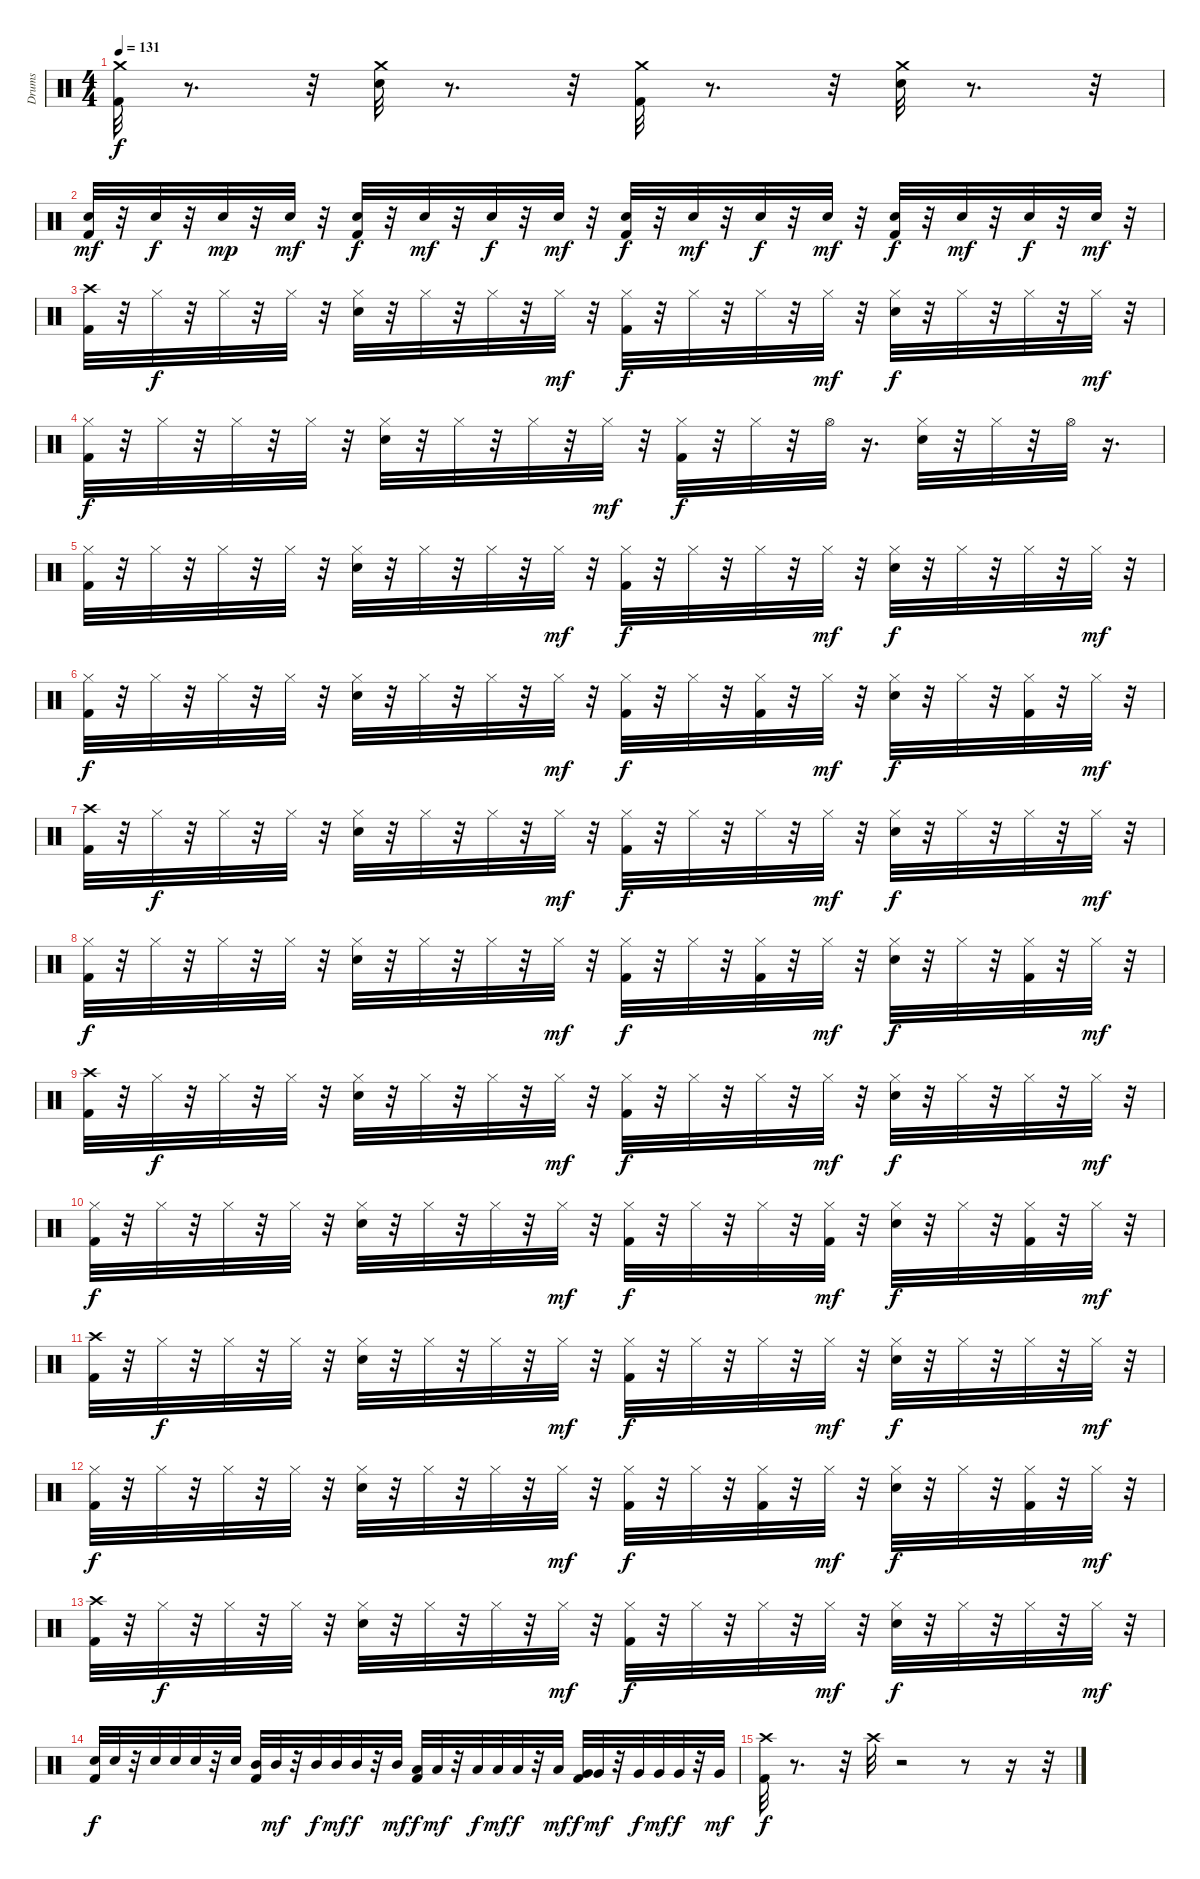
\track ("Drums" "Drums") {instrument percussion}
\staff {score}
\articulation defaults
\ts (4 4)
\tempo 131
\clef neutral
\ks c
("Crash medium (hit)" "Kick (hit) 2").32{dy f} r.8{d} r.32 ("Crash medium (hit)" "Snare (hit) 2").32 r.8{d} r.32 ("Crash medium (hit)" "Kick (hit) 2").32 r.8{d} r.32 ("Crash medium (hit)" "Snare (hit) 2").32 r.8{d} r.32 |
("Snare (hit) 2" "Kick (hit) 2").32{dy mf} r.32 "Snare (hit) 2".32{dy f} r.32 "Snare (hit) 2".32{dy mp} r.32 "Snare (hit) 2".32{dy mf} r.32 ("Snare (hit) 2" "Kick (hit) 2").32{dy f} r.32 "Snare (hit) 2".32{dy mf} r.32 "Snare (hit) 2".32{dy f} r.32 "Snare (hit) 2".32{dy mf} r.32 ("Kick (hit) 2" "Snare (hit) 2").32{dy f} r.32 "Snare (hit) 2".32{dy mf} r.32 "Snare (hit) 2".32{dy f} r.32 "Snare (hit) 2".32{dy mf} r.32 ("Kick (hit) 2" "Snare (hit) 2").32{dy f} r.32 "Snare (hit) 2".32{dy mf} r.32 "Snare (hit) 2".32{dy f} r.32 "Snare (hit) 2".32{dy mf} r.32 |
("Crash high (hit)" "Kick (hit) 2").32 r.32 "Hi-Hat (closed)".32{dy f} r.32 "Hi-Hat (closed)".32 r.32 "Hi-Hat (closed)".32 r.32 ("Hi-Hat (closed)" "Snare (hit) 2").32 r.32 "Hi-Hat (closed)".32 r.32 "Hi-Hat (closed)".32 r.32 "Hi-Hat (closed)".32{dy mf} r.32 ("Hi-Hat (closed)" "Kick (hit) 2").32{dy f} r.32 "Hi-Hat (closed)".32 r.32 "Hi-Hat (closed)".32 r.32 "Hi-Hat (closed)".32{dy mf} r.32 ("Hi-Hat (closed)" "Snare (hit) 2").32{dy f} r.32 "Hi-Hat (closed)".32 r.32 "Hi-Hat (closed)".32 r.32 "Hi-Hat (closed)".32{dy mf} r.32 |
("Kick (hit) 2" "Hi-Hat (closed)").32{dy f} r.32 "Hi-Hat (closed)".32 r.32 "Hi-Hat (closed)".32 r.32 "Hi-Hat (closed)".32 r.32 ("Snare (hit) 2" "Hi-Hat (closed)").32 r.32 "Hi-Hat (closed)".32 r.32 "Hi-Hat (closed)".32 r.32 "Hi-Hat (closed)".32{dy mf} r.32 ("Kick (hit) 2" "Hi-Hat (closed)").32{dy f} r.32 "Hi-Hat (closed)".32 r.32 "Hi-Hat (open)".32 r.16{d} ("Snare (hit) 2" "Hi-Hat (closed)").32 r.32 "Hi-Hat (closed)".32 r.32 "Hi-Hat (open)".32 r.16{d} |
("Kick (hit) 2" "Hi-Hat (closed)").32 r.32 "Hi-Hat (closed)".32 r.32 "Hi-Hat (closed)".32 r.32 "Hi-Hat (closed)".32 r.32 ("Hi-Hat (closed)" "Snare (hit) 2").32 r.32 "Hi-Hat (closed)".32 r.32 "Hi-Hat (closed)".32 r.32 "Hi-Hat (closed)".32{dy mf} r.32 ("Hi-Hat (closed)" "Kick (hit) 2").32{dy f} r.32 "Hi-Hat (closed)".32 r.32 "Hi-Hat (closed)".32 r.32 "Hi-Hat (closed)".32{dy mf} r.32 ("Hi-Hat (closed)" "Snare (hit) 2").32{dy f} r.32 "Hi-Hat (closed)".32 r.32 "Hi-Hat (closed)".32 r.32 "Hi-Hat (closed)".32{dy mf} r.32 |
("Kick (hit) 2" "Hi-Hat (closed)").32{dy f} r.32 "Hi-Hat (closed)".32 r.32 "Hi-Hat (closed)".32 r.32 "Hi-Hat (closed)".32 r.32 ("Hi-Hat (closed)" "Snare (hit) 2").32 r.32 "Hi-Hat (closed)".32 r.32 "Hi-Hat (closed)".32 r.32 "Hi-Hat (closed)".32{dy mf} r.32 ("Hi-Hat (closed)" "Kick (hit) 2").32{dy f} r.32 "Hi-Hat (closed)".32 r.32 ("Kick (hit) 2" "Hi-Hat (closed)").32 r.32 "Hi-Hat (closed)".32{dy mf} r.32 ("Hi-Hat (closed)" "Snare (hit) 2").32{dy f} r.32 "Hi-Hat (closed)".32 r.32 ("Kick (hit) 2" "Hi-Hat (closed)").32 r.32 "Hi-Hat (closed)".32{dy mf} r.32 |
("Crash high (hit)" "Kick (hit) 2").32 r.32 "Hi-Hat (closed)".32{dy f} r.32 "Hi-Hat (closed)".32 r.32 "Hi-Hat (closed)".32 r.32 ("Hi-Hat (closed)" "Snare (hit) 2").32 r.32 "Hi-Hat (closed)".32 r.32 "Hi-Hat (closed)".32 r.32 "Hi-Hat (closed)".32{dy mf} r.32 ("Hi-Hat (closed)" "Kick (hit) 2").32{dy f} r.32 "Hi-Hat (closed)".32 r.32 "Hi-Hat (closed)".32 r.32 "Hi-Hat (closed)".32{dy mf} r.32 ("Hi-Hat (closed)" "Snare (hit) 2").32{dy f} r.32 "Hi-Hat (closed)".32 r.32 "Hi-Hat (closed)".32 r.32 "Hi-Hat (closed)".32{dy mf} r.32 |
("Kick (hit) 2" "Hi-Hat (closed)").32{dy f} r.32 "Hi-Hat (closed)".32 r.32 "Hi-Hat (closed)".32 r.32 "Hi-Hat (closed)".32 r.32 ("Hi-Hat (closed)" "Snare (hit) 2").32 r.32 "Hi-Hat (closed)".32 r.32 "Hi-Hat (closed)".32 r.32 "Hi-Hat (closed)".32{dy mf} r.32 ("Hi-Hat (closed)" "Kick (hit) 2").32{dy f} r.32 "Hi-Hat (closed)".32 r.32 ("Kick (hit) 2" "Hi-Hat (closed)").32 r.32 "Hi-Hat (closed)".32{dy mf} r.32 ("Hi-Hat (closed)" "Snare (hit) 2").32{dy f} r.32 "Hi-Hat (closed)".32 r.32 ("Kick (hit) 2" "Hi-Hat (closed)").32 r.32 "Hi-Hat (closed)".32{dy mf} r.32 |
("Crash high (hit)" "Kick (hit) 2").32 r.32 "Hi-Hat (closed)".32{dy f} r.32 "Hi-Hat (closed)".32 r.32 "Hi-Hat (closed)".32 r.32 ("Hi-Hat (closed)" "Snare (hit) 2").32 r.32 "Hi-Hat (closed)".32 r.32 "Hi-Hat (closed)".32 r.32 "Hi-Hat (closed)".32{dy mf} r.32 ("Hi-Hat (closed)" "Kick (hit) 2").32{dy f} r.32 "Hi-Hat (closed)".32 r.32 "Hi-Hat (closed)".32 r.32 "Hi-Hat (closed)".32{dy mf} r.32 ("Hi-Hat (closed)" "Snare (hit) 2").32{dy f} r.32 "Hi-Hat (closed)".32 r.32 "Hi-Hat (closed)".32 r.32 "Hi-Hat (closed)".32{dy mf} r.32 |
("Kick (hit) 2" "Hi-Hat (closed)").32{dy f} r.32 "Hi-Hat (closed)".32 r.32 "Hi-Hat (closed)".32 r.32 "Hi-Hat (closed)".32 r.32 ("Hi-Hat (closed)" "Snare (hit) 2").32 r.32 "Hi-Hat (closed)".32 r.32 "Hi-Hat (closed)".32 r.32 "Hi-Hat (closed)".32{dy mf} r.32 ("Hi-Hat (closed)" "Kick (hit) 2").32{dy f} r.32 "Hi-Hat (closed)".32 r.32 "Hi-Hat (closed)".32 r.32 ("Hi-Hat (closed)" "Kick (hit) 2").32{dy mf} r.32 ("Hi-Hat (closed)" "Snare (hit) 2").32{dy f} r.32 "Hi-Hat (closed)".32 r.32 ("Kick (hit) 2" "Hi-Hat (closed)").32 r.32 "Hi-Hat (closed)".32{dy mf} r.32 |
("Crash high (hit)" "Kick (hit) 2").32 r.32 "Hi-Hat (closed)".32{dy f} r.32 "Hi-Hat (closed)".32 r.32 "Hi-Hat (closed)".32 r.32 ("Hi-Hat (closed)" "Snare (hit) 2").32 r.32 "Hi-Hat (closed)".32 r.32 "Hi-Hat (closed)".32 r.32 "Hi-Hat (closed)".32{dy mf} r.32 ("Hi-Hat (closed)" "Kick (hit) 2").32{dy f} r.32 "Hi-Hat (closed)".32 r.32 "Hi-Hat (closed)".32 r.32 "Hi-Hat (closed)".32{dy mf} r.32 ("Hi-Hat (closed)" "Snare (hit) 2").32{dy f} r.32 "Hi-Hat (closed)".32 r.32 "Hi-Hat (closed)".32 r.32 "Hi-Hat (closed)".32{dy mf} r.32 |
("Kick (hit) 2" "Hi-Hat (closed)").32{dy f} r.32 "Hi-Hat (closed)".32 r.32 "Hi-Hat (closed)".32 r.32 "Hi-Hat (closed)".32 r.32 ("Hi-Hat (closed)" "Snare (hit) 2").32 r.32 "Hi-Hat (closed)".32 r.32 "Hi-Hat (closed)".32 r.32 "Hi-Hat (closed)".32{dy mf} r.32 ("Hi-Hat (closed)" "Kick (hit) 2").32{dy f} r.32 "Hi-Hat (closed)".32 r.32 ("Kick (hit) 2" "Hi-Hat (closed)").32 r.32 "Hi-Hat (closed)".32{dy mf} r.32 ("Hi-Hat (closed)" "Snare (hit) 2").32{dy f} r.32 "Hi-Hat (closed)".32 r.32 ("Kick (hit) 2" "Hi-Hat (closed)").32 r.32 "Hi-Hat (closed)".32{dy mf} r.32 |
("Crash high (hit)" "Kick (hit) 2").32 r.32 "Hi-Hat (closed)".32{dy f} r.32 "Hi-Hat (closed)".32 r.32 "Hi-Hat (closed)".32 r.32 ("Hi-Hat (closed)" "Snare (hit) 2").32 r.32 "Hi-Hat (closed)".32 r.32 "Hi-Hat (closed)".32 r.32 "Hi-Hat (closed)".32{dy mf} r.32 ("Hi-Hat (closed)" "Kick (hit) 2").32{dy f} r.32 "Hi-Hat (closed)".32 r.32 "Hi-Hat (closed)".32 r.32 "Hi-Hat (closed)".32{dy mf} r.32 ("Hi-Hat (closed)" "Snare (hit) 2").32{dy f} r.32 "Hi-Hat (closed)".32 r.32 "Hi-Hat (closed)".32 r.32 "Hi-Hat (closed)".32{dy mf} r.32 |
("Snare (hit) 2" "Kick (hit) 2").32{dy f} "Snare (hit) 2".32 r.32 "Snare (hit) 2".32 "Snare (hit) 2".32 "Snare (hit) 2".32 r.32 "Snare (hit) 2".32 ("Kick (hit) 2" "Mid Tom (hit)").32 "Mid Tom (hit)".32{dy mf} r.32 "Mid Tom (hit)".32{dy f} "Mid Tom (hit)".32{dy mf} "Mid Tom (hit)".32{dy f} r.32 "Mid Tom (hit)".32{dy mf} ("Kick (hit) 2" "Low Tom (hit)").32{dy f} "Low Tom (hit)".32{dy mf} r.32 "Low Tom (hit)".32{dy f} "Low Tom (hit)".32{dy mf} "Low Tom (hit)".32{dy f} r.32 "Low Tom (hit)".32{dy mf} ("Kick (hit) 2" "Very Low Tom (hit)").32{dy f} "Very Low Tom (hit)".32{dy mf} r.32 "Very Low Tom (hit)".32{dy f} "Very Low Tom (hit)".32{dy mf} "Very Low Tom (hit)".32{dy f} r.32 "Very Low Tom (hit)".32{dy mf} |
("Crash high (hit)" "Kick (hit) 2").32{dy f} r.8{d} r.32 "Crash high (hit)".32 r.2 r.8 r.16 r.32
